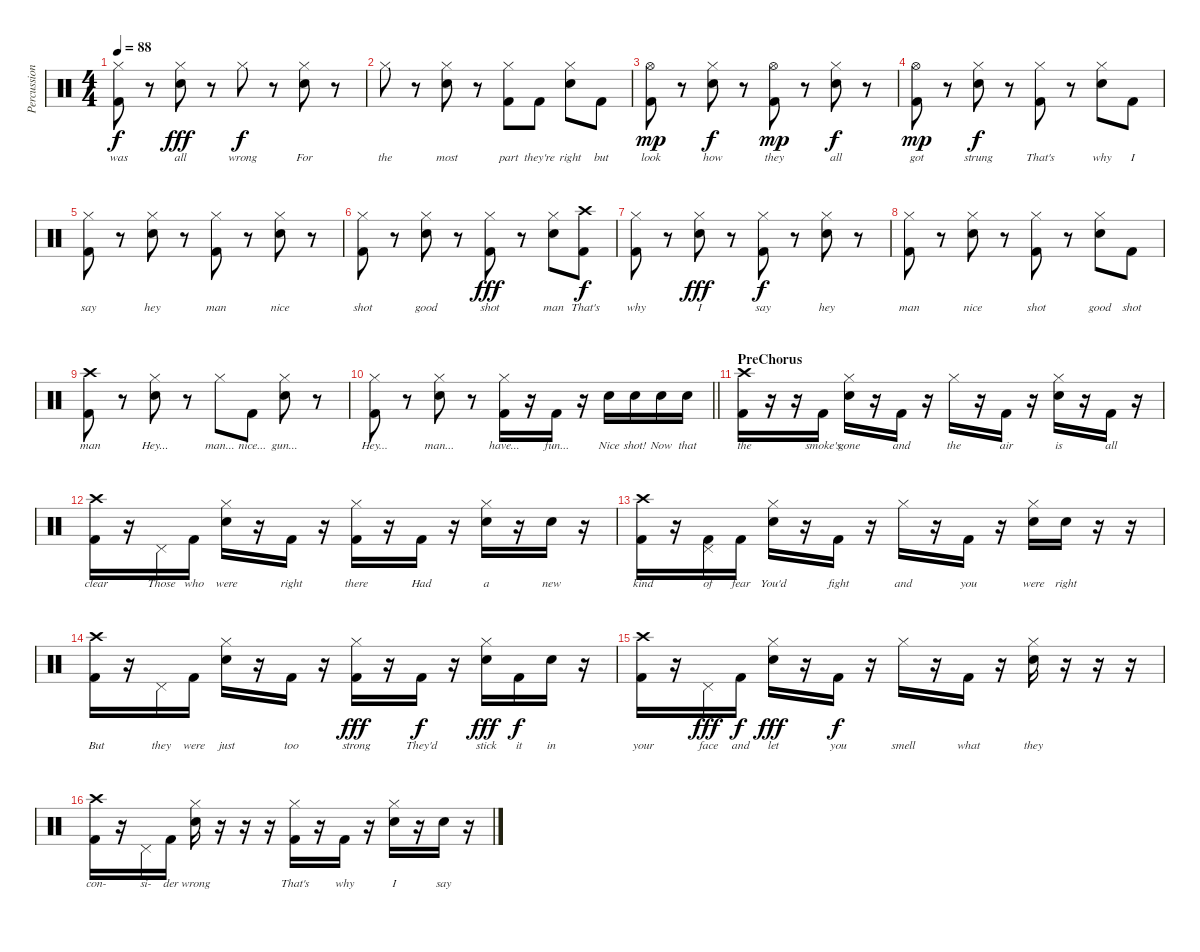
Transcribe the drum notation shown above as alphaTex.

\track ("Percussion" "Percussion") {instrument percussion}
\staff {score}
\articulation defaults
\ts (4 4)
\tempo 88
\clef neutral
\ks c
("Hi-Hat (closed)" "Kick (hit) 2").8{lyrics (0 "was") lyrics (1 "") lyrics (2 "") lyrics (3 "") lyrics (4 "") dy f} r.8 ("Hi-Hat (closed)" "Snare (hit) 2").8{lyrics (0 "all") lyrics (1 "") lyrics (2 "") lyrics (3 "") lyrics (4 "") dy fff} r.8 "Hi-Hat (closed)".8{lyrics (0 "wrong") lyrics (1 "") lyrics (2 "") lyrics (3 "") lyrics (4 "") dy f} r.8 ("Hi-Hat (closed)" "Snare (hit) 2").8{lyrics (0 "For") lyrics (1 "") lyrics (2 "") lyrics (3 "") lyrics (4 "")} r.8 |
"Hi-Hat (closed)".8{lyrics (0 "the") lyrics (1 "") lyrics (2 "") lyrics (3 "") lyrics (4 "")} r.8 ("Hi-Hat (closed)" "Snare (hit) 2").8{lyrics (0 "most") lyrics (1 "") lyrics (2 "") lyrics (3 "") lyrics (4 "")} r.8 ("Hi-Hat (closed)" "Kick (hit) 2").8{lyrics (0 "part") lyrics (1 "") lyrics (2 "") lyrics (3 "") lyrics (4 "")} "Kick (hit) 2".8{lyrics (0 "they're") lyrics (1 "") lyrics (2 "") lyrics (3 "") lyrics (4 "")} ("Hi-Hat (closed)" "Snare (hit) 2").8{lyrics (0 "right") lyrics (1 "") lyrics (2 "") lyrics (3 "") lyrics (4 "")} "Kick (hit) 2".8{lyrics (0 "but") lyrics (1 "") lyrics (2 "") lyrics (3 "") lyrics (4 "")} |
("Hi-Hat (open)" "Kick (hit) 2").8{lyrics (0 "look") lyrics (1 "") lyrics (2 "") lyrics (3 "") lyrics (4 "") dy mp} r.8 ("Hi-Hat (closed)" "Snare (hit) 2").8{lyrics (0 "how") lyrics (1 "") lyrics (2 "") lyrics (3 "") lyrics (4 "") dy f} r.8 ("Hi-Hat (open)" "Kick (hit) 2").8{lyrics (0 "they") lyrics (1 "") lyrics (2 "") lyrics (3 "") lyrics (4 "") dy mp} r.8 ("Hi-Hat (closed)" "Snare (hit) 2").8{lyrics (0 "all") lyrics (1 "") lyrics (2 "") lyrics (3 "") lyrics (4 "") dy f} r.8 |
("Hi-Hat (open)" "Kick (hit) 2").8{lyrics (0 "got") lyrics (1 "") lyrics (2 "") lyrics (3 "") lyrics (4 "") dy mp} r.8 ("Hi-Hat (closed)" "Snare (hit) 2").8{lyrics (0 "strung") lyrics (1 "") lyrics (2 "") lyrics (3 "") lyrics (4 "") dy f} r.8 ("Hi-Hat (closed)" "Kick (hit) 2").8{lyrics (0 "That's") lyrics (1 "") lyrics (2 "") lyrics (3 "") lyrics (4 "")} r.8 ("Hi-Hat (closed)" "Snare (hit) 2").8{lyrics (0 "why") lyrics (1 "") lyrics (2 "") lyrics (3 "") lyrics (4 "")} "Kick (hit) 2".8{lyrics (0 "I") lyrics (1 "") lyrics (2 "") lyrics (3 "") lyrics (4 "")} |
("Hi-Hat (closed)" "Kick (hit) 2").8{lyrics (0 "say") lyrics (1 "") lyrics (2 "") lyrics (3 "") lyrics (4 "")} r.8 ("Hi-Hat (closed)" "Snare (hit) 2").8{lyrics (0 "hey") lyrics (1 "") lyrics (2 "") lyrics (3 "") lyrics (4 "")} r.8 ("Hi-Hat (closed)" "Kick (hit) 2").8{lyrics (0 "man") lyrics (1 "") lyrics (2 "") lyrics (3 "") lyrics (4 "")} r.8 ("Hi-Hat (closed)" "Snare (hit) 2").8{lyrics (0 "nice") lyrics (1 "") lyrics (2 "") lyrics (3 "") lyrics (4 "")} r.8 |
("Hi-Hat (closed)" "Kick (hit) 2").8{lyrics (0 "shot") lyrics (1 "") lyrics (2 "") lyrics (3 "") lyrics (4 "")} r.8 ("Hi-Hat (closed)" "Snare (hit) 2").8{lyrics (0 "good") lyrics (1 "") lyrics (2 "") lyrics (3 "") lyrics (4 "")} r.8 ("Hi-Hat (closed)" "Kick (hit) 2").8{lyrics (0 "shot") lyrics (1 "") lyrics (2 "") lyrics (3 "") lyrics (4 "") dy fff} r.8 ("Hi-Hat (closed)" "Snare (hit) 2").8{lyrics (0 "man") lyrics (1 "") lyrics (2 "") lyrics (3 "") lyrics (4 "")} ("Crash high (hit)" "Kick (hit) 2").8{lyrics (0 "That's") lyrics (1 "") lyrics (2 "") lyrics (3 "") lyrics (4 "") dy f} |
("Hi-Hat (closed)" "Kick (hit) 2").8{lyrics (0 "why") lyrics (1 "") lyrics (2 "") lyrics (3 "") lyrics (4 "")} r.8 ("Hi-Hat (closed)" "Snare (hit) 2").8{lyrics (0 "I") lyrics (1 "") lyrics (2 "") lyrics (3 "") lyrics (4 "") dy fff} r.8 ("Hi-Hat (closed)" "Kick (hit) 2").8{lyrics (0 "say") lyrics (1 "") lyrics (2 "") lyrics (3 "") lyrics (4 "") dy f} r.8 ("Hi-Hat (closed)" "Snare (hit) 2").8{lyrics (0 "hey") lyrics (1 "") lyrics (2 "") lyrics (3 "") lyrics (4 "")} r.8 |
("Hi-Hat (closed)" "Kick (hit) 2").8{lyrics (0 "man") lyrics (1 "") lyrics (2 "") lyrics (3 "") lyrics (4 "")} r.8 ("Hi-Hat (closed)" "Snare (hit) 2").8{lyrics (0 "nice") lyrics (1 "") lyrics (2 "") lyrics (3 "") lyrics (4 "")} r.8 ("Hi-Hat (closed)" "Kick (hit) 2").8{lyrics (0 "shot") lyrics (1 "") lyrics (2 "") lyrics (3 "") lyrics (4 "")} r.8 ("Hi-Hat (closed)" "Snare (hit) 2").8{lyrics (0 "good") lyrics (1 "") lyrics (2 "") lyrics (3 "") lyrics (4 "")} "Kick (hit) 2".8{lyrics (0 "shot") lyrics (1 "") lyrics (2 "") lyrics (3 "") lyrics (4 "")} |
("Crash high (hit)" "Kick (hit) 2").8{lyrics (0 "man") lyrics (1 "") lyrics (2 "") lyrics (3 "") lyrics (4 "")} r.8 ("Hi-Hat (closed)" "Snare (hit) 2").8{lyrics (0 "Hey...") lyrics (1 "") lyrics (2 "") lyrics (3 "") lyrics (4 "")} r.8 "Hi-Hat (closed)".8{lyrics (0 "man...") lyrics (1 "") lyrics (2 "") lyrics (3 "") lyrics (4 "")} "Kick (hit) 2".8{lyrics (0 "nice...") lyrics (1 "") lyrics (2 "") lyrics (3 "") lyrics (4 "")} ("Hi-Hat (closed)" "Snare (hit) 2").8{lyrics (0 "gun...") lyrics (1 "") lyrics (2 "") lyrics (3 "") lyrics (4 "")} r.8 |
\barLineRight lightlight
("Hi-Hat (closed)" "Kick (hit) 2").8{lyrics (0 "Hey...") lyrics (1 "") lyrics (2 "") lyrics (3 "") lyrics (4 "")} r.8 ("Hi-Hat (closed)" "Snare (hit) 2").8{lyrics (0 "man...") lyrics (1 "") lyrics (2 "") lyrics (3 "") lyrics (4 "")} r.8 ("Hi-Hat (closed)" "Kick (hit) 2").16{lyrics (0 "have...") lyrics (1 "") lyrics (2 "") lyrics (3 "") lyrics (4 "")} r.16 "Kick (hit) 2".16{lyrics (0 "fun...") lyrics (1 "") lyrics (2 "") lyrics (3 "") lyrics (4 "")} r.16 "Snare (hit) 2".16{lyrics (0 "Nice") lyrics (1 "") lyrics (2 "") lyrics (3 "") lyrics (4 "")} "Snare (hit) 2".16{lyrics (0 "shot!") lyrics (1 "") lyrics (2 "") lyrics (3 "") lyrics (4 "")} "Snare (hit) 2".16{lyrics (0 "Now") lyrics (1 "") lyrics (2 "") lyrics (3 "") lyrics (4 "")} "Snare (hit) 2".16{lyrics (0 "that") lyrics (1 "") lyrics (2 "") lyrics (3 "") lyrics (4 "")} |
\section ("" "PreChorus")
("Crash high (hit)" "Kick (hit) 2").16{lyrics (0 "the") lyrics (1 "") lyrics (2 "") lyrics (3 "") lyrics (4 "")} r.16 r.16 "Kick (hit) 2".16{lyrics (0 "smoke's") lyrics (1 "") lyrics (2 "") lyrics (3 "") lyrics (4 "")} ("Hi-Hat (closed)" "Snare (hit) 2").16{lyrics (0 "gone") lyrics (1 "") lyrics (2 "") lyrics (3 "") lyrics (4 "")} r.16 "Kick (hit) 2".16{lyrics (0 "and") lyrics (1 "") lyrics (2 "") lyrics (3 "") lyrics (4 "")} r.16 "Hi-Hat (closed)".16{lyrics (0 "the") lyrics (1 "") lyrics (2 "") lyrics (3 "") lyrics (4 "")} r.16 "Kick (hit) 2".16{lyrics (0 "air") lyrics (1 "") lyrics (2 "") lyrics (3 "") lyrics (4 "")} r.16 ("Hi-Hat (closed)" "Snare (hit) 2").16{lyrics (0 "is") lyrics (1 "") lyrics (2 "") lyrics (3 "") lyrics (4 "")} r.16 "Kick (hit) 2".16{lyrics (0 "all") lyrics (1 "") lyrics (2 "") lyrics (3 "") lyrics (4 "")} r.16 |
("Crash high (hit)" "Kick (hit) 2").16{lyrics (0 "clear") lyrics (1 "") lyrics (2 "") lyrics (3 "") lyrics (4 "")} r.16 "Pedal Hi-Hat (hit)".16{lyrics (0 "Those") lyrics (1 "") lyrics (2 "") lyrics (3 "") lyrics (4 "")} "Kick (hit) 2".16{lyrics (0 "who") lyrics (1 "") lyrics (2 "") lyrics (3 "") lyrics (4 "")} ("Hi-Hat (closed)" "Snare (hit) 2").16{lyrics (0 "were") lyrics (1 "") lyrics (2 "") lyrics (3 "") lyrics (4 "")} r.16 "Kick (hit) 2".16{lyrics (0 "right") lyrics (1 "") lyrics (2 "") lyrics (3 "") lyrics (4 "")} r.16 ("Hi-Hat (closed)" "Kick (hit) 2").16{lyrics (0 "there") lyrics (1 "") lyrics (2 "") lyrics (3 "") lyrics (4 "")} r.16 "Kick (hit) 2".16{lyrics (0 "Had") lyrics (1 "") lyrics (2 "") lyrics (3 "") lyrics (4 "")} r.16 ("Hi-Hat (closed)" "Snare (hit) 2").16{lyrics (0 "a") lyrics (1 "") lyrics (2 "") lyrics (3 "") lyrics (4 "")} r.16 "Snare (hit) 2".16{lyrics (0 "new") lyrics (1 "") lyrics (2 "") lyrics (3 "") lyrics (4 "")} r.16 |
("Crash high (hit)" "Kick (hit) 2").16{lyrics (0 "kind") lyrics (1 "") lyrics (2 "") lyrics (3 "") lyrics (4 "")} r.16 ("Pedal Hi-Hat (hit)" "Kick (hit) 2").16{lyrics (0 "of") lyrics (1 "") lyrics (2 "") lyrics (3 "") lyrics (4 "")} "Kick (hit) 2".16{lyrics (0 "fear") lyrics (1 "") lyrics (2 "") lyrics (3 "") lyrics (4 "")} ("Hi-Hat (closed)" "Snare (hit) 2").16{lyrics (0 "You'd") lyrics (1 "") lyrics (2 "") lyrics (3 "") lyrics (4 "")} r.16 "Kick (hit) 2".16{lyrics (0 "fight") lyrics (1 "") lyrics (2 "") lyrics (3 "") lyrics (4 "")} r.16 "Hi-Hat (closed)".16{lyrics (0 "and") lyrics (1 "") lyrics (2 "") lyrics (3 "") lyrics (4 "")} r.16 "Kick (hit) 2".16{lyrics (0 "you") lyrics (1 "") lyrics (2 "") lyrics (3 "") lyrics (4 "")} r.16 ("Hi-Hat (closed)" "Snare (hit) 2").16{lyrics (0 "were") lyrics (1 "") lyrics (2 "") lyrics (3 "") lyrics (4 "")} "Snare (hit) 2".16{lyrics (0 "right") lyrics (1 "") lyrics (2 "") lyrics (3 "") lyrics (4 "")} r.16 r.16 |
("Crash high (hit)" "Kick (hit) 2").16{lyrics (0 "But") lyrics (1 "") lyrics (2 "") lyrics (3 "") lyrics (4 "")} r.16 "Pedal Hi-Hat (hit)".16{lyrics (0 "they") lyrics (1 "") lyrics (2 "") lyrics (3 "") lyrics (4 "")} "Kick (hit) 2".16{lyrics (0 "were") lyrics (1 "") lyrics (2 "") lyrics (3 "") lyrics (4 "")} ("Hi-Hat (closed)" "Snare (hit) 2").16{lyrics (0 "just") lyrics (1 "") lyrics (2 "") lyrics (3 "") lyrics (4 "")} r.16 "Kick (hit) 2".16{lyrics (0 "too") lyrics (1 "") lyrics (2 "") lyrics (3 "") lyrics (4 "")} r.16 ("Hi-Hat (closed)" "Kick (hit) 2").16{lyrics (0 "strong") lyrics (1 "") lyrics (2 "") lyrics (3 "") lyrics (4 "") dy fff} r.16 "Kick (hit) 2".16{lyrics (0 "They'd") lyrics (1 "") lyrics (2 "") lyrics (3 "") lyrics (4 "") dy f} r.16 ("Hi-Hat (closed)" "Snare (hit) 2").16{lyrics (0 "stick") lyrics (1 "") lyrics (2 "") lyrics (3 "") lyrics (4 "") dy fff} "Kick (hit) 2".16{lyrics (0 "it") lyrics (1 "") lyrics (2 "") lyrics (3 "") lyrics (4 "") dy f} "Snare (hit) 2".16{lyrics (0 "in") lyrics (1 "") lyrics (2 "") lyrics (3 "") lyrics (4 "")} r.16 |
("Crash high (hit)" "Kick (hit) 2").16{lyrics (0 "your") lyrics (1 "") lyrics (2 "") lyrics (3 "") lyrics (4 "")} r.16 "Pedal Hi-Hat (hit)".16{lyrics (0 "face") lyrics (1 "") lyrics (2 "") lyrics (3 "") lyrics (4 "") dy fff} "Kick (hit) 2".16{lyrics (0 "and") lyrics (1 "") lyrics (2 "") lyrics (3 "") lyrics (4 "") dy f} ("Hi-Hat (closed)" "Snare (hit) 2").16{lyrics (0 "let") lyrics (1 "") lyrics (2 "") lyrics (3 "") lyrics (4 "") dy fff} r.16 "Kick (hit) 2".16{lyrics (0 "you") lyrics (1 "") lyrics (2 "") lyrics (3 "") lyrics (4 "") dy f} r.16 "Hi-Hat (closed)".16{lyrics (0 "smell") lyrics (1 "") lyrics (2 "") lyrics (3 "") lyrics (4 "")} r.16 "Kick (hit) 2".16{lyrics (0 "what") lyrics (1 "") lyrics (2 "") lyrics (3 "") lyrics (4 "")} r.16 ("Hi-Hat (closed)" "Snare (hit) 2").16{lyrics (0 "they") lyrics (1 "") lyrics (2 "") lyrics (3 "") lyrics (4 "")} r.16 r.16 r.16 |
("Crash high (hit)" "Kick (hit) 2").16{lyrics (0 "con-") lyrics (1 "") lyrics (2 "") lyrics (3 "") lyrics (4 "")} r.16 "Pedal Hi-Hat (hit)".16{lyrics (0 "si-") lyrics (1 "") lyrics (2 "") lyrics (3 "") lyrics (4 "")} "Kick (hit) 2".16{lyrics (0 "der") lyrics (1 "") lyrics (2 "") lyrics (3 "") lyrics (4 "")} ("Hi-Hat (closed)" "Snare (hit) 2").16{lyrics (0 "wrong") lyrics (1 "") lyrics (2 "") lyrics (3 "") lyrics (4 "")} r.16 r.16 r.16 ("Hi-Hat (closed)" "Kick (hit) 2").16{lyrics (0 "That's") lyrics (1 "") lyrics (2 "") lyrics (3 "") lyrics (4 "")} r.16 "Kick (hit) 2".16{lyrics (0 "why") lyrics (1 "") lyrics (2 "") lyrics (3 "") lyrics (4 "")} r.16 ("Hi-Hat (closed)" "Snare (hit) 2").16{lyrics (0 "I") lyrics (1 "") lyrics (2 "") lyrics (3 "") lyrics (4 "")} r.16 "Snare (hit) 2".16{lyrics (0 "say") lyrics (1 "") lyrics (2 "") lyrics (3 "") lyrics (4 "")} r.16
